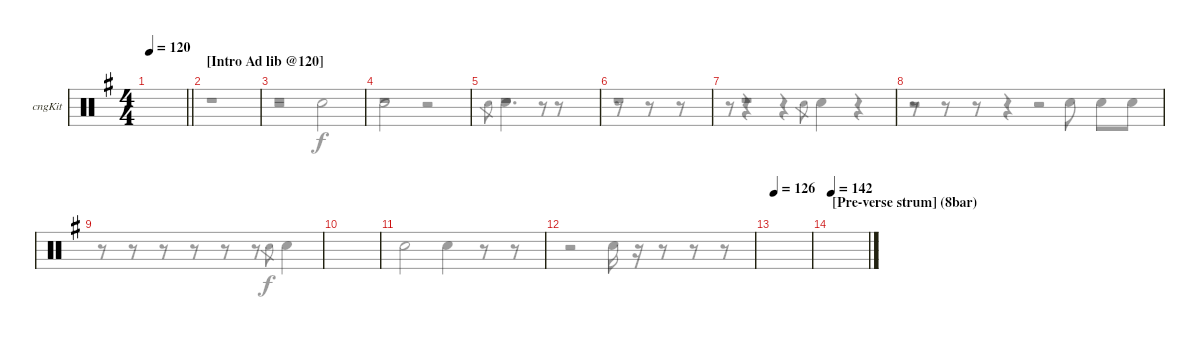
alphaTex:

\bracketExtendMode groupsimilarinstruments
\firstSystemTrackNameOrientation horizontal
\otherSystemsTrackNameOrientation horizontal
\track ("Congas" "cngKit") {instrument percussion}
\staff {score}
\articulation defaults
\voice
\ts (4 4)
\tempo 120
\clef neutral
\barLineRight lightlight
\ks eminor
|
\section ("" "[Intro Ad lib @120]")
|
|
|
|
|
|
|
|
|
|
|
\tempo 126
|
\section ("" "[Pre-verse strum] (8bar)")
\tempo (142 0.00625)
|
|
\voice
\clef neutral
\barLineRight lightlight
\ks eminor
|
r.1 |
r.1 |
r.1 |
r.1 |
r.1 |
r.1 |
r.2 r.2 |
r.8 r.8 r.8 r.8 r.8 r.8 "Snare (hit) 2".8{gr} "Snare (hit) 2".4 |
|
"Snare (hit) 2".2 "Snare (hit) 2".4 r.8 r.8 |
r.2 "Snare (hit) 2".16 r.16 r.8 r.8 r.8 |
|
|
|
\voice
\clef neutral
\ottava regular
\simile none
\barLineRight lightlight
\ks eminor
|
|
r.2 "Snare (hit) 2".2 |
"Snare (hit) 2".2 r.2 |
"Snare (hit) 2".8{gr} "Snare (hit) 2".4{d} r.8{gr} r.8 |
r.8 r.8 r.8 |
r.8{gr} r.4 r.4 "Snare (hit) 2".8{gr} "Snare (hit) 2".4 r.4 |
r.8 r.8 r.8 r.4 "Snare (hit) 2".8 "Snare (hit) 2".8 "Snare (hit) 2".8 |
|
|
|
|
|
|
|
